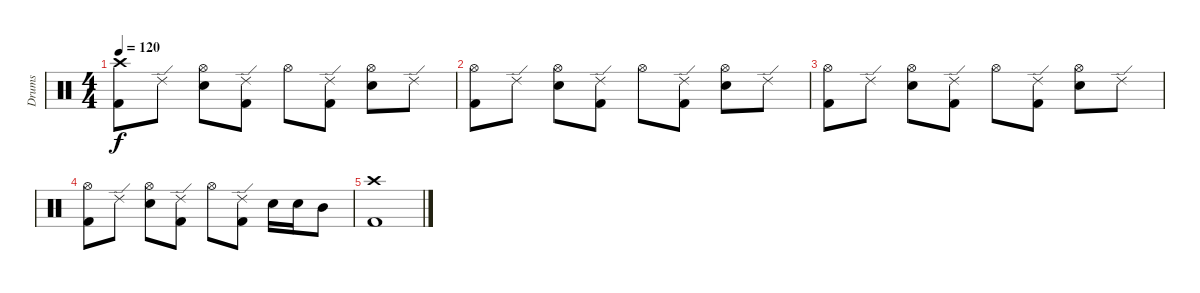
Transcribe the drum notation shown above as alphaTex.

\track ("Drums" "Drums") {instrument percussion}
\staff {score}
\articulation defaults
\ts (4 4)
\tempo 120
\clef neutral
\ks c
("Crash high (hit)" "Kick (hit) 2").8{dy f} "Ride (edge) 2".8 ("Hi-Hat (open)" "Electric Snare (hit)").8 ("Ride (edge) 2" "Kick (hit) 2").8 "Hi-Hat (open)".8 ("Ride (edge) 2" "Kick (hit) 2").8 ("Hi-Hat (open)" "Electric Snare (hit)").8 "Ride (edge) 2".8 |
("Hi-Hat (open)" "Kick (hit) 2").8 "Ride (edge) 2".8 ("Hi-Hat (open)" "Electric Snare (hit)").8 ("Ride (edge) 2" "Kick (hit) 2").8 "Hi-Hat (open)".8 ("Ride (edge) 2" "Kick (hit) 2").8 ("Hi-Hat (open)" "Electric Snare (hit)").8 "Ride (edge) 2".8 |
("Hi-Hat (open)" "Kick (hit) 2").8 "Ride (edge) 2".8 ("Hi-Hat (open)" "Electric Snare (hit)").8 ("Ride (edge) 2" "Kick (hit) 2").8 "Hi-Hat (open)".8 ("Ride (edge) 2" "Kick (hit) 2").8 ("Hi-Hat (open)" "Electric Snare (hit)").8 "Ride (edge) 2".8 |
("Hi-Hat (open)" "Kick (hit) 2").8 "Ride (edge) 2".8 ("Hi-Hat (open)" "Electric Snare (hit)").8 ("Ride (edge) 2" "Kick (hit) 2").8 "Hi-Hat (open)".8 ("Ride (edge) 2" "Kick (hit) 2").8 "Electric Snare (hit)".16 "Electric Snare (hit)".16 "Mid Tom (hit)".8 |
("Crash high (hit)" "Kick (hit) 2").1
